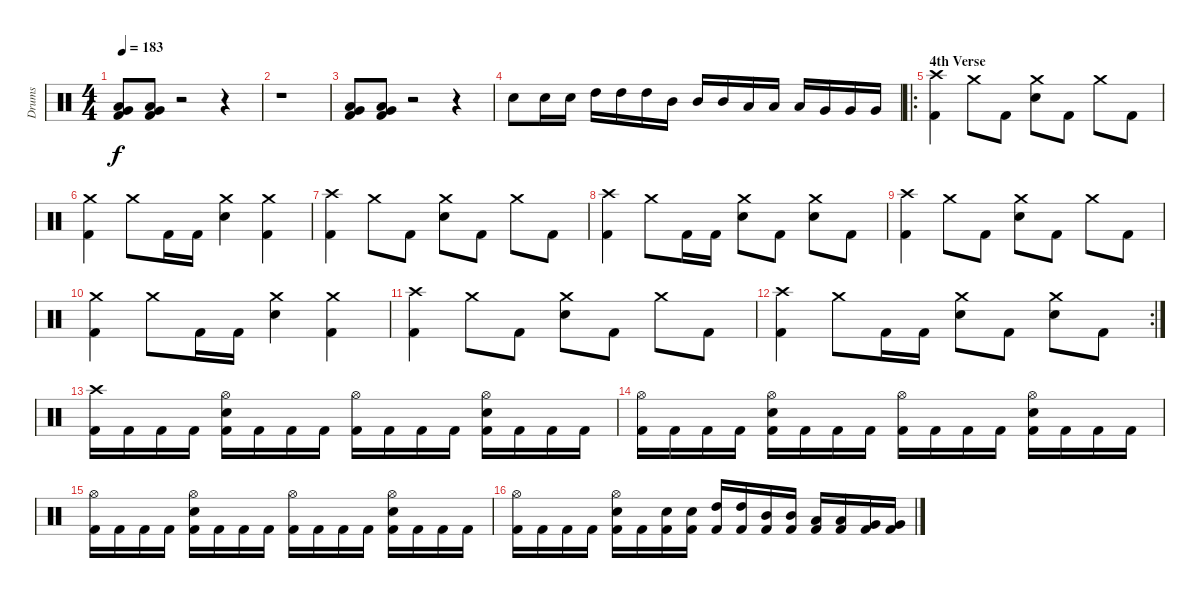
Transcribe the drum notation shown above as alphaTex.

\track ("Drums" "Drums") {instrument percussion}
\staff {score}
\articulation defaults
\ts (4 4)
\tempo 183
\clef neutral
\ks c
("Kick (hit) 2" "Low Tom (hit)" "Very Low Tom (hit)").8{dy f} ("Kick (hit) 2" "Low Tom (hit)" "Very Low Tom (hit)").8 r.2 r.4 |
r.1 |
("Kick (hit) 2" "Low Tom (hit)" "Very Low Tom (hit)").8 ("Kick (hit) 2" "Low Tom (hit)" "Very Low Tom (hit)").8 r.2 r.4 |
"Electric Snare (hit)".8 "Electric Snare (hit)".16 "Electric Snare (hit)".16 "High Tom (hit)".16 "High Tom (hit)".16 "High Tom (hit)".16 "Mid Tom (hit)".16 "Mid Tom (hit)".16 "Mid Tom (hit)".16 "Low Tom (hit)".16 "Low Tom (hit)".16 "Low Tom (hit)".16 "Very Low Tom (hit)".16 "Very Low Tom (hit)".16 "Very Low Tom (hit)".16 |
\ro
\section ("" "4th Verse")
("Kick (hit) 2" "Crash high (hit)").4 "Crash medium (hit)".8 "Kick (hit) 2".8 ("Electric Snare (hit)" "Crash medium (hit)").8 "Kick (hit) 2".8 "Crash medium (hit)".8 "Kick (hit) 2".8 |
("Kick (hit) 2" "Crash medium (hit)").4 "Crash medium (hit)".8 "Kick (hit) 2".16 "Kick (hit) 2".16 ("Electric Snare (hit)" "Crash medium (hit)").4 ("Kick (hit) 2" "Crash medium (hit)").4 |
("Kick (hit) 2" "Crash high (hit)").4 "Crash medium (hit)".8 "Kick (hit) 2".8 ("Electric Snare (hit)" "Crash medium (hit)").8 "Kick (hit) 2".8 "Crash medium (hit)".8 "Kick (hit) 2".8 |
("Kick (hit) 2" "Crash high (hit)").4 "Crash medium (hit)".8 "Kick (hit) 2".16 "Kick (hit) 2".16 ("Electric Snare (hit)" "Crash medium (hit)").8 "Kick (hit) 2".8 ("Electric Snare (hit)" "Crash medium (hit)").8 "Kick (hit) 2".8 |
("Kick (hit) 2" "Crash high (hit)").4 "Crash medium (hit)".8 "Kick (hit) 2".8 ("Electric Snare (hit)" "Crash medium (hit)").8 "Kick (hit) 2".8 "Crash medium (hit)".8 "Kick (hit) 2".8 |
("Kick (hit) 2" "Crash medium (hit)").4 "Crash medium (hit)".8 "Kick (hit) 2".16 "Kick (hit) 2".16 ("Electric Snare (hit)" "Crash medium (hit)").4 ("Kick (hit) 2" "Crash medium (hit)").4 |
("Kick (hit) 2" "Crash high (hit)").4 "Crash medium (hit)".8 "Kick (hit) 2".8 ("Electric Snare (hit)" "Crash medium (hit)").8 "Kick (hit) 2".8 "Crash medium (hit)".8 "Kick (hit) 2".8 |
\rc 2
("Kick (hit) 2" "Crash high (hit)").4 "Crash medium (hit)".8 "Kick (hit) 2".16 "Kick (hit) 2".16 ("Electric Snare (hit)" "Crash medium (hit)").8 "Kick (hit) 2".8 ("Electric Snare (hit)" "Crash medium (hit)").8 "Kick (hit) 2".8 |
("Kick (hit) 2" "Crash high (hit)").16 "Kick (hit) 2".16 "Kick (hit) 2".16 "Kick (hit) 2".16 ("Kick (hit) 2" "Electric Snare (hit)" "Hi-Hat (open)").16 "Kick (hit) 2".16 "Kick (hit) 2".16 "Kick (hit) 2".16 ("Kick (hit) 2" "Hi-Hat (open)").16 "Kick (hit) 2".16 "Kick (hit) 2".16 "Kick (hit) 2".16 ("Kick (hit) 2" "Electric Snare (hit)" "Hi-Hat (open)").16 "Kick (hit) 2".16 "Kick (hit) 2".16 "Kick (hit) 2".16 |
("Kick (hit) 2" "Hi-Hat (open)").16 "Kick (hit) 2".16 "Kick (hit) 2".16 "Kick (hit) 2".16 ("Kick (hit) 2" "Electric Snare (hit)" "Hi-Hat (open)").16 "Kick (hit) 2".16 "Kick (hit) 2".16 "Kick (hit) 2".16 ("Kick (hit) 2" "Hi-Hat (open)").16 "Kick (hit) 2".16 "Kick (hit) 2".16 "Kick (hit) 2".16 ("Kick (hit) 2" "Electric Snare (hit)" "Hi-Hat (open)").16 "Kick (hit) 2".16 "Kick (hit) 2".16 "Kick (hit) 2".16 |
("Kick (hit) 2" "Hi-Hat (open)").16 "Kick (hit) 2".16 "Kick (hit) 2".16 "Kick (hit) 2".16 ("Kick (hit) 2" "Electric Snare (hit)" "Hi-Hat (open)").16 "Kick (hit) 2".16 "Kick (hit) 2".16 "Kick (hit) 2".16 ("Kick (hit) 2" "Hi-Hat (open)").16 "Kick (hit) 2".16 "Kick (hit) 2".16 "Kick (hit) 2".16 ("Kick (hit) 2" "Electric Snare (hit)" "Hi-Hat (open)").16 "Kick (hit) 2".16 "Kick (hit) 2".16 "Kick (hit) 2".16 |
("Kick (hit) 2" "Hi-Hat (open)").16 "Kick (hit) 2".16 "Kick (hit) 2".16 "Kick (hit) 2".16 ("Kick (hit) 2" "Electric Snare (hit)" "Hi-Hat (open)").16 "Kick (hit) 2".16 ("Kick (hit) 2" "Electric Snare (hit)").16 ("Kick (hit) 2" "Electric Snare (hit)").16 ("Kick (hit) 2" "High Tom (hit)").16 ("Kick (hit) 2" "High Tom (hit)").16 ("Kick (hit) 2" "Mid Tom (hit)").16 ("Kick (hit) 2" "Mid Tom (hit)").16 ("Kick (hit) 2" "Low Tom (hit)").16 ("Kick (hit) 2" "Low Tom (hit)").16 ("Kick (hit) 2" "Very Low Tom (hit)").16 ("Kick (hit) 2" "Very Low Tom (hit)").16
